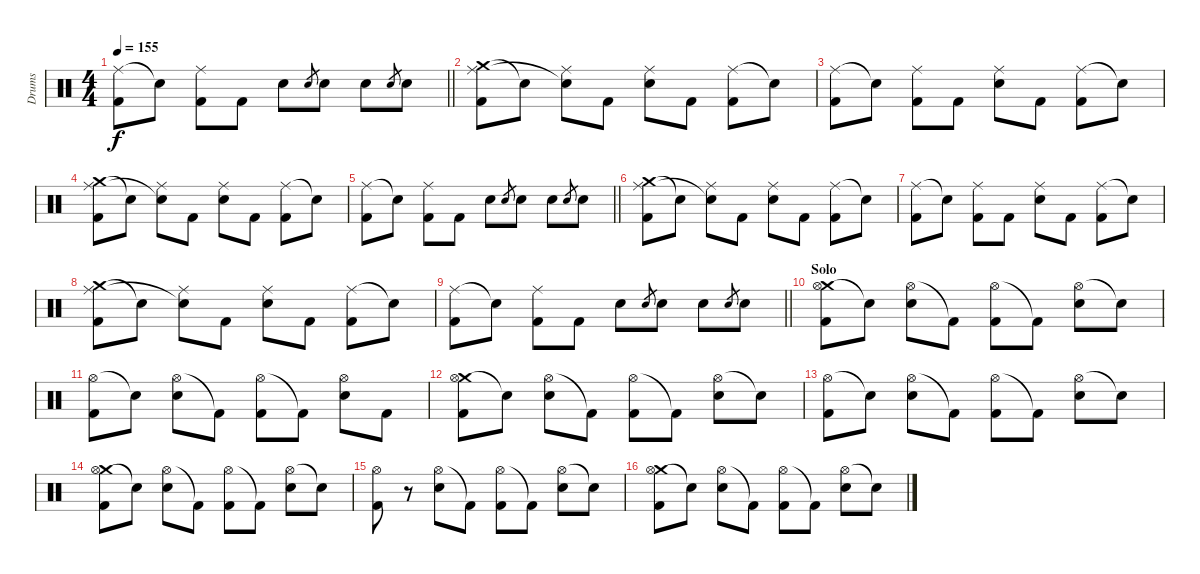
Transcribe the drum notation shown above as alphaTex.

\track ("Drums" "Drums") {instrument percussion}
\staff {score}
\articulation defaults
\ts (4 4)
\tempo 155
\clef neutral
\barLineRight lightlight
\ks c
("Ride (middle)" "Kick (hit) 2").8{dy f} "Snare (hit)"{t}.8 ("Ride (middle)" "Kick (hit) 2").8 "Kick (hit) 2".8 "Electric Snare (hit)".8 "Electric Snare (hit)".8{gr} "Electric Snare (hit)".8 "Electric Snare (hit)".8 "Electric Snare (hit)".8{gr} "Electric Snare (hit)".8 |
("Crash medium (hit)" "Ride (middle)" "Kick (hit) 2").8 "Snare (hit)"{t}.8 ("Ride (middle)" "Snare (hit)"{t}).8 "Kick (hit) 2".8 ("Ride (middle)" "Electric Snare (hit)").8 "Kick (hit) 2".8 ("Ride (middle)" "Kick (hit) 2").8 "Snare (hit)"{t}.8 |
("Ride (middle)" "Kick (hit) 2").8 "Snare (hit)"{t}.8 ("Ride (middle)" "Kick (hit) 2").8 "Kick (hit) 2".8 ("Ride (middle)" "Electric Snare (hit)").8 "Kick (hit) 2".8 ("Ride (middle)" "Kick (hit) 2").8 "Snare (hit)"{t}.8 |
("Crash medium (hit)" "Ride (middle)" "Kick (hit) 2").8 "Snare (hit)"{t}.8 ("Ride (middle)" "Snare (hit)"{t}).8 "Kick (hit) 2".8 ("Ride (middle)" "Electric Snare (hit)").8 "Kick (hit) 2".8 ("Ride (middle)" "Kick (hit) 2").8 "Snare (hit)"{t}.8 |
\barLineRight lightlight
("Ride (middle)" "Kick (hit) 2").8 "Snare (hit)"{t}.8 ("Ride (middle)" "Kick (hit) 2").8 "Kick (hit) 2".8 "Electric Snare (hit)".8 "Electric Snare (hit)".8{gr} "Electric Snare (hit)".8 "Electric Snare (hit)".8 "Electric Snare (hit)".8{gr} "Electric Snare (hit)".8 |
("Crash medium (hit)" "Ride (middle)" "Kick (hit) 2").8 "Snare (hit)"{t}.8 ("Ride (middle)" "Snare (hit)"{t}).8 "Kick (hit) 2".8 ("Ride (middle)" "Electric Snare (hit)").8 "Kick (hit) 2".8 ("Ride (middle)" "Kick (hit) 2").8 "Snare (hit)"{t}.8 |
("Ride (middle)" "Kick (hit) 2").8 "Snare (hit)"{t}.8 ("Ride (middle)" "Kick (hit) 2").8 "Kick (hit) 2".8 ("Ride (middle)" "Electric Snare (hit)").8 "Kick (hit) 2".8 ("Ride (middle)" "Kick (hit) 2").8 "Snare (hit)"{t}.8 |
("Crash medium (hit)" "Ride (middle)" "Kick (hit) 2").8 "Snare (hit)"{t}.8 ("Ride (middle)" "Snare (hit)"{t}).8 "Kick (hit) 2".8 ("Ride (middle)" "Electric Snare (hit)").8 "Kick (hit) 2".8 ("Ride (middle)" "Kick (hit) 2").8 "Snare (hit)"{t}.8 |
\barLineRight lightlight
("Ride (middle)" "Kick (hit) 2").8 "Snare (hit)"{t}.8 ("Ride (middle)" "Kick (hit) 2").8 "Kick (hit) 2".8 "Electric Snare (hit)".8 "Electric Snare (hit)".8{gr} "Electric Snare (hit)".8 "Electric Snare (hit)".8 "Electric Snare (hit)".8{gr} "Electric Snare (hit)".8 |
\section ("" "Solo")
("Crash medium (hit)" "Hi-Hat (open)" "Kick (hit) 2").8 "Snare (hit)"{t}.8 ("Hi-Hat (open)" "Electric Snare (hit)").8 "Kick (hit) 2"{t}.8 ("Hi-Hat (open)" "Kick (hit) 2").8 "Kick (hit) 2"{t}.8 ("Hi-Hat (open)" "Electric Snare (hit)").8 "Snare (hit)"{t}.8 |
("Hi-Hat (open)" "Kick (hit) 2").8 "Snare (hit)"{t}.8 ("Hi-Hat (open)" "Electric Snare (hit)").8 "Kick (hit) 2"{t}.8 ("Hi-Hat (open)" "Kick (hit) 2").8 "Kick (hit) 2"{t}.8 ("Hi-Hat (open)" "Electric Snare (hit)").8 "Kick (hit) 2".8 |
("Crash medium (hit)" "Hi-Hat (open)" "Kick (hit) 2").8 "Snare (hit)"{t}.8 ("Hi-Hat (open)" "Electric Snare (hit)").8 "Kick (hit) 2"{t}.8 ("Hi-Hat (open)" "Kick (hit) 2").8 "Kick (hit) 2"{t}.8 ("Hi-Hat (open)" "Electric Snare (hit)").8 "Snare (hit)"{t}.8 |
("Hi-Hat (open)" "Kick (hit) 2").8 "Snare (hit)"{t}.8 ("Hi-Hat (open)" "Electric Snare (hit)").8 "Kick (hit) 2"{t}.8 ("Hi-Hat (open)" "Kick (hit) 2").8 "Kick (hit) 2"{t}.8 ("Hi-Hat (open)" "Electric Snare (hit)").8 "Snare (hit)"{t}.8 |
("Crash medium (hit)" "Hi-Hat (open)" "Kick (hit) 2").8 "Snare (hit)"{t}.8 ("Hi-Hat (open)" "Electric Snare (hit)").8 "Kick (hit) 2"{t}.8 ("Hi-Hat (open)" "Kick (hit) 2").8 "Kick (hit) 2"{t}.8 ("Hi-Hat (open)" "Electric Snare (hit)").8 "Snare (hit)"{t}.8 |
("Hi-Hat (open)" "Kick (hit) 2").8 r.8 ("Hi-Hat (open)" "Electric Snare (hit)").8 "Kick (hit) 2"{t}.8 ("Hi-Hat (open)" "Kick (hit) 2").8 "Kick (hit) 2"{t}.8 ("Hi-Hat (open)" "Electric Snare (hit)").8 "Snare (hit)"{t}.8 |
("Crash medium (hit)" "Hi-Hat (open)" "Kick (hit) 2").8 "Snare (hit)"{t}.8 ("Hi-Hat (open)" "Electric Snare (hit)").8 "Kick (hit) 2"{t}.8 ("Hi-Hat (open)" "Kick (hit) 2").8 "Kick (hit) 2"{t}.8 ("Hi-Hat (open)" "Electric Snare (hit)").8 "Snare (hit)"{t}.8
